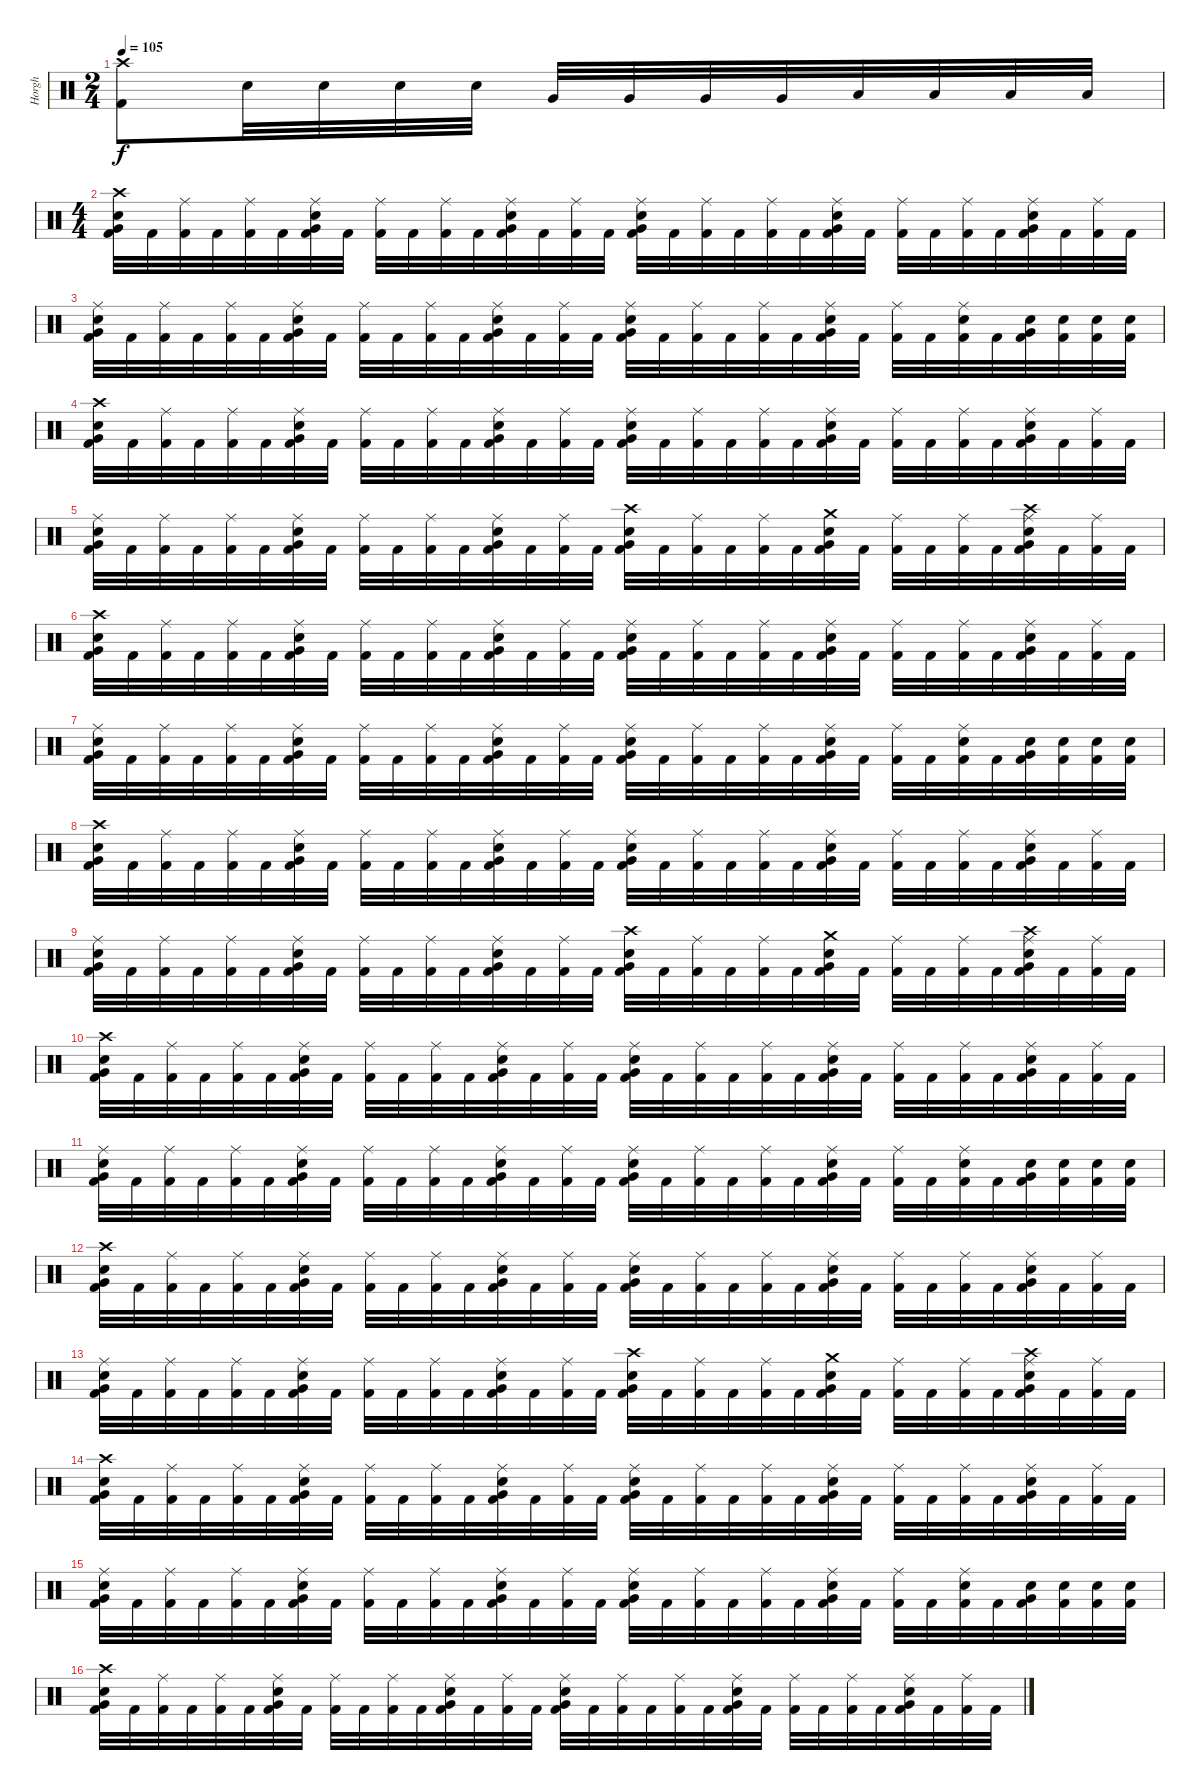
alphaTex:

\track ("Horgh" "Horgh") {instrument percussion}
\staff {score}
\articulation defaults
\ts (2 4)
\tempo 105
\clef neutral
\ks c
("Crash high (hit)" "Kick (hit) 2").8{dy f} "Electric Snare (hit)".32 "Electric Snare (hit)".32 "Electric Snare (hit)".32 "Electric Snare (hit)".32 "Very Low Tom (hit)".32 "Very Low Tom (hit)".32 "Very Low Tom (hit)".32 "Very Low Tom (hit)".32 "Low Tom (hit)".32 "Low Tom (hit)".32 "Low Tom (hit)".32 "Low Tom (hit)".32 |
\ts (4 4)
("Crash high (hit)" "Electric Snare (hit)" "Very Low Tom (hit)" "Kick (hit) 2").32 "Kick (hit) 2".32 ("Ride (middle)" "Kick (hit) 2").32 "Kick (hit) 2".32 ("Ride (middle)" "Kick (hit) 2").32 "Kick (hit) 2".32 ("Ride (middle)" "Electric Snare (hit)" "Very Low Tom (hit)" "Kick (hit) 2").32 "Kick (hit) 2".32 ("Ride (middle)" "Kick (hit) 2").32 "Kick (hit) 2".32 ("Ride (middle)" "Kick (hit) 2").32 "Kick (hit) 2".32 ("Ride (middle)" "Electric Snare (hit)" "Very Low Tom (hit)" "Kick (hit) 2").32 "Kick (hit) 2".32 ("Ride (middle)" "Kick (hit) 2").32 "Kick (hit) 2".32 ("Ride (middle)" "Electric Snare (hit)" "Very Low Tom (hit)" "Kick (hit) 2").32 "Kick (hit) 2".32 ("Ride (middle)" "Kick (hit) 2").32 "Kick (hit) 2".32 ("Ride (middle)" "Kick (hit) 2").32 "Kick (hit) 2".32 ("Ride (middle)" "Electric Snare (hit)" "Very Low Tom (hit)" "Kick (hit) 2").32 "Kick (hit) 2".32 ("Ride (middle)" "Kick (hit) 2").32 "Kick (hit) 2".32 ("Ride (middle)" "Kick (hit) 2").32 "Kick (hit) 2".32 ("Ride (middle)" "Electric Snare (hit)" "Very Low Tom (hit)" "Kick (hit) 2").32 "Kick (hit) 2".32 ("Ride (middle)" "Kick (hit) 2").32 "Kick (hit) 2".32 |
("Ride (middle)" "Electric Snare (hit)" "Very Low Tom (hit)" "Kick (hit) 2").32 "Kick (hit) 2".32 ("Ride (middle)" "Kick (hit) 2").32 "Kick (hit) 2".32 ("Ride (middle)" "Kick (hit) 2").32 "Kick (hit) 2".32 ("Ride (middle)" "Electric Snare (hit)" "Very Low Tom (hit)" "Kick (hit) 2").32 "Kick (hit) 2".32 ("Ride (middle)" "Kick (hit) 2").32 "Kick (hit) 2".32 ("Ride (middle)" "Kick (hit) 2").32 "Kick (hit) 2".32 ("Ride (middle)" "Electric Snare (hit)" "Very Low Tom (hit)" "Kick (hit) 2").32 "Kick (hit) 2".32 ("Ride (middle)" "Kick (hit) 2").32 "Kick (hit) 2".32 ("Ride (middle)" "Electric Snare (hit)" "Very Low Tom (hit)" "Kick (hit) 2").32 "Kick (hit) 2".32 ("Ride (middle)" "Kick (hit) 2").32 "Kick (hit) 2".32 ("Ride (middle)" "Kick (hit) 2").32 "Kick (hit) 2".32 ("Ride (middle)" "Electric Snare (hit)" "Very Low Tom (hit)" "Kick (hit) 2").32 "Kick (hit) 2".32 ("Ride (middle)" "Kick (hit) 2").32 "Kick (hit) 2".32 ("Ride (middle)" "Electric Snare (hit)" "Kick (hit) 2").32 "Kick (hit) 2".32 ("Electric Snare (hit)" "Very Low Tom (hit)" "Kick (hit) 2").32 ("Electric Snare (hit)" "Kick (hit) 2").32 ("Electric Snare (hit)" "Kick (hit) 2").32 ("Electric Snare (hit)" "Kick (hit) 2").32 |
("Crash high (hit)" "Electric Snare (hit)" "Very Low Tom (hit)" "Kick (hit) 2").32 "Kick (hit) 2".32 ("Ride (middle)" "Kick (hit) 2").32 "Kick (hit) 2".32 ("Ride (middle)" "Kick (hit) 2").32 "Kick (hit) 2".32 ("Ride (middle)" "Electric Snare (hit)" "Very Low Tom (hit)" "Kick (hit) 2").32 "Kick (hit) 2".32 ("Ride (middle)" "Kick (hit) 2").32 "Kick (hit) 2".32 ("Ride (middle)" "Kick (hit) 2").32 "Kick (hit) 2".32 ("Ride (middle)" "Electric Snare (hit)" "Very Low Tom (hit)" "Kick (hit) 2").32 "Kick (hit) 2".32 ("Ride (middle)" "Kick (hit) 2").32 "Kick (hit) 2".32 ("Ride (middle)" "Electric Snare (hit)" "Very Low Tom (hit)" "Kick (hit) 2").32 "Kick (hit) 2".32 ("Ride (middle)" "Kick (hit) 2").32 "Kick (hit) 2".32 ("Ride (middle)" "Kick (hit) 2").32 "Kick (hit) 2".32 ("Ride (middle)" "Electric Snare (hit)" "Very Low Tom (hit)" "Kick (hit) 2").32 "Kick (hit) 2".32 ("Ride (middle)" "Kick (hit) 2").32 "Kick (hit) 2".32 ("Ride (middle)" "Kick (hit) 2").32 "Kick (hit) 2".32 ("Ride (middle)" "Electric Snare (hit)" "Very Low Tom (hit)" "Kick (hit) 2").32 "Kick (hit) 2".32 ("Ride (middle)" "Kick (hit) 2").32 "Kick (hit) 2".32 |
("Ride (middle)" "Electric Snare (hit)" "Very Low Tom (hit)" "Kick (hit) 2").32 "Kick (hit) 2".32 ("Ride (middle)" "Kick (hit) 2").32 "Kick (hit) 2".32 ("Ride (middle)" "Kick (hit) 2").32 "Kick (hit) 2".32 ("Ride (middle)" "Electric Snare (hit)" "Very Low Tom (hit)" "Kick (hit) 2").32 "Kick (hit) 2".32 ("Ride (middle)" "Kick (hit) 2").32 "Kick (hit) 2".32 ("Ride (middle)" "Kick (hit) 2").32 "Kick (hit) 2".32 ("Ride (middle)" "Electric Snare (hit)" "Very Low Tom (hit)" "Kick (hit) 2").32 "Kick (hit) 2".32 ("Ride (middle)" "Kick (hit) 2").32 "Kick (hit) 2".32 ("Crash high (hit)" "Electric Snare (hit)" "Very Low Tom (hit)" "Kick (hit) 2").32 "Kick (hit) 2".32 ("Ride (middle)" "Kick (hit) 2").32 "Kick (hit) 2".32 ("Ride (middle)" "Kick (hit) 2").32 "Kick (hit) 2".32 ("Crash medium (hit)" "Electric Snare (hit)" "Very Low Tom (hit)" "Kick (hit) 2").32 "Kick (hit) 2".32 ("Ride (middle)" "Kick (hit) 2").32 "Kick (hit) 2".32 ("Ride (middle)" "Kick (hit) 2").32 "Kick (hit) 2".32 ("Crash high (hit)" "Ride (middle)" "Electric Snare (hit)" "Very Low Tom (hit)" "Kick (hit) 2").32 "Kick (hit) 2".32 ("Ride (middle)" "Kick (hit) 2").32 "Kick (hit) 2".32 |
("Crash high (hit)" "Electric Snare (hit)" "Very Low Tom (hit)" "Kick (hit) 2").32 "Kick (hit) 2".32 ("Ride (middle)" "Kick (hit) 2").32 "Kick (hit) 2".32 ("Ride (middle)" "Kick (hit) 2").32 "Kick (hit) 2".32 ("Ride (middle)" "Electric Snare (hit)" "Very Low Tom (hit)" "Kick (hit) 2").32 "Kick (hit) 2".32 ("Ride (middle)" "Kick (hit) 2").32 "Kick (hit) 2".32 ("Ride (middle)" "Kick (hit) 2").32 "Kick (hit) 2".32 ("Ride (middle)" "Electric Snare (hit)" "Very Low Tom (hit)" "Kick (hit) 2").32 "Kick (hit) 2".32 ("Ride (middle)" "Kick (hit) 2").32 "Kick (hit) 2".32 ("Ride (middle)" "Electric Snare (hit)" "Very Low Tom (hit)" "Kick (hit) 2").32 "Kick (hit) 2".32 ("Ride (middle)" "Kick (hit) 2").32 "Kick (hit) 2".32 ("Ride (middle)" "Kick (hit) 2").32 "Kick (hit) 2".32 ("Ride (middle)" "Electric Snare (hit)" "Very Low Tom (hit)" "Kick (hit) 2").32 "Kick (hit) 2".32 ("Ride (middle)" "Kick (hit) 2").32 "Kick (hit) 2".32 ("Ride (middle)" "Kick (hit) 2").32 "Kick (hit) 2".32 ("Ride (middle)" "Electric Snare (hit)" "Very Low Tom (hit)" "Kick (hit) 2").32 "Kick (hit) 2".32 ("Ride (middle)" "Kick (hit) 2").32 "Kick (hit) 2".32 |
("Ride (middle)" "Electric Snare (hit)" "Very Low Tom (hit)" "Kick (hit) 2").32 "Kick (hit) 2".32 ("Ride (middle)" "Kick (hit) 2").32 "Kick (hit) 2".32 ("Ride (middle)" "Kick (hit) 2").32 "Kick (hit) 2".32 ("Ride (middle)" "Electric Snare (hit)" "Very Low Tom (hit)" "Kick (hit) 2").32 "Kick (hit) 2".32 ("Ride (middle)" "Kick (hit) 2").32 "Kick (hit) 2".32 ("Ride (middle)" "Kick (hit) 2").32 "Kick (hit) 2".32 ("Ride (middle)" "Electric Snare (hit)" "Very Low Tom (hit)" "Kick (hit) 2").32 "Kick (hit) 2".32 ("Ride (middle)" "Kick (hit) 2").32 "Kick (hit) 2".32 ("Ride (middle)" "Electric Snare (hit)" "Very Low Tom (hit)" "Kick (hit) 2").32 "Kick (hit) 2".32 ("Ride (middle)" "Kick (hit) 2").32 "Kick (hit) 2".32 ("Ride (middle)" "Kick (hit) 2").32 "Kick (hit) 2".32 ("Ride (middle)" "Electric Snare (hit)" "Very Low Tom (hit)" "Kick (hit) 2").32 "Kick (hit) 2".32 ("Ride (middle)" "Kick (hit) 2").32 "Kick (hit) 2".32 ("Ride (middle)" "Electric Snare (hit)" "Kick (hit) 2").32 "Kick (hit) 2".32 ("Electric Snare (hit)" "Very Low Tom (hit)" "Kick (hit) 2").32 ("Electric Snare (hit)" "Kick (hit) 2").32 ("Electric Snare (hit)" "Kick (hit) 2").32 ("Electric Snare (hit)" "Kick (hit) 2").32 |
("Crash high (hit)" "Electric Snare (hit)" "Very Low Tom (hit)" "Kick (hit) 2").32 "Kick (hit) 2".32 ("Ride (middle)" "Kick (hit) 2").32 "Kick (hit) 2".32 ("Ride (middle)" "Kick (hit) 2").32 "Kick (hit) 2".32 ("Ride (middle)" "Electric Snare (hit)" "Very Low Tom (hit)" "Kick (hit) 2").32 "Kick (hit) 2".32 ("Ride (middle)" "Kick (hit) 2").32 "Kick (hit) 2".32 ("Ride (middle)" "Kick (hit) 2").32 "Kick (hit) 2".32 ("Ride (middle)" "Electric Snare (hit)" "Very Low Tom (hit)" "Kick (hit) 2").32 "Kick (hit) 2".32 ("Ride (middle)" "Kick (hit) 2").32 "Kick (hit) 2".32 ("Ride (middle)" "Electric Snare (hit)" "Very Low Tom (hit)" "Kick (hit) 2").32 "Kick (hit) 2".32 ("Ride (middle)" "Kick (hit) 2").32 "Kick (hit) 2".32 ("Ride (middle)" "Kick (hit) 2").32 "Kick (hit) 2".32 ("Ride (middle)" "Electric Snare (hit)" "Very Low Tom (hit)" "Kick (hit) 2").32 "Kick (hit) 2".32 ("Ride (middle)" "Kick (hit) 2").32 "Kick (hit) 2".32 ("Ride (middle)" "Kick (hit) 2").32 "Kick (hit) 2".32 ("Ride (middle)" "Electric Snare (hit)" "Very Low Tom (hit)" "Kick (hit) 2").32 "Kick (hit) 2".32 ("Ride (middle)" "Kick (hit) 2").32 "Kick (hit) 2".32 |
("Ride (middle)" "Electric Snare (hit)" "Very Low Tom (hit)" "Kick (hit) 2").32 "Kick (hit) 2".32 ("Ride (middle)" "Kick (hit) 2").32 "Kick (hit) 2".32 ("Ride (middle)" "Kick (hit) 2").32 "Kick (hit) 2".32 ("Ride (middle)" "Electric Snare (hit)" "Very Low Tom (hit)" "Kick (hit) 2").32 "Kick (hit) 2".32 ("Ride (middle)" "Kick (hit) 2").32 "Kick (hit) 2".32 ("Ride (middle)" "Kick (hit) 2").32 "Kick (hit) 2".32 ("Ride (middle)" "Electric Snare (hit)" "Very Low Tom (hit)" "Kick (hit) 2").32 "Kick (hit) 2".32 ("Ride (middle)" "Kick (hit) 2").32 "Kick (hit) 2".32 ("Crash high (hit)" "Electric Snare (hit)" "Very Low Tom (hit)" "Kick (hit) 2").32 "Kick (hit) 2".32 ("Ride (middle)" "Kick (hit) 2").32 "Kick (hit) 2".32 ("Ride (middle)" "Kick (hit) 2").32 "Kick (hit) 2".32 ("Crash medium (hit)" "Electric Snare (hit)" "Very Low Tom (hit)" "Kick (hit) 2").32 "Kick (hit) 2".32 ("Ride (middle)" "Kick (hit) 2").32 "Kick (hit) 2".32 ("Ride (middle)" "Kick (hit) 2").32 "Kick (hit) 2".32 ("Crash high (hit)" "Ride (middle)" "Electric Snare (hit)" "Very Low Tom (hit)" "Kick (hit) 2").32 "Kick (hit) 2".32 ("Ride (middle)" "Kick (hit) 2").32 "Kick (hit) 2".32 |
("Crash high (hit)" "Electric Snare (hit)" "Very Low Tom (hit)" "Kick (hit) 2").32 "Kick (hit) 2".32 ("Ride (middle)" "Kick (hit) 2").32 "Kick (hit) 2".32 ("Ride (middle)" "Kick (hit) 2").32 "Kick (hit) 2".32 ("Ride (middle)" "Electric Snare (hit)" "Very Low Tom (hit)" "Kick (hit) 2").32 "Kick (hit) 2".32 ("Ride (middle)" "Kick (hit) 2").32 "Kick (hit) 2".32 ("Ride (middle)" "Kick (hit) 2").32 "Kick (hit) 2".32 ("Ride (middle)" "Electric Snare (hit)" "Very Low Tom (hit)" "Kick (hit) 2").32 "Kick (hit) 2".32 ("Ride (middle)" "Kick (hit) 2").32 "Kick (hit) 2".32 ("Ride (middle)" "Electric Snare (hit)" "Very Low Tom (hit)" "Kick (hit) 2").32 "Kick (hit) 2".32 ("Ride (middle)" "Kick (hit) 2").32 "Kick (hit) 2".32 ("Ride (middle)" "Kick (hit) 2").32 "Kick (hit) 2".32 ("Ride (middle)" "Electric Snare (hit)" "Very Low Tom (hit)" "Kick (hit) 2").32 "Kick (hit) 2".32 ("Ride (middle)" "Kick (hit) 2").32 "Kick (hit) 2".32 ("Ride (middle)" "Kick (hit) 2").32 "Kick (hit) 2".32 ("Ride (middle)" "Electric Snare (hit)" "Very Low Tom (hit)" "Kick (hit) 2").32 "Kick (hit) 2".32 ("Ride (middle)" "Kick (hit) 2").32 "Kick (hit) 2".32 |
("Ride (middle)" "Electric Snare (hit)" "Very Low Tom (hit)" "Kick (hit) 2").32 "Kick (hit) 2".32 ("Ride (middle)" "Kick (hit) 2").32 "Kick (hit) 2".32 ("Ride (middle)" "Kick (hit) 2").32 "Kick (hit) 2".32 ("Ride (middle)" "Electric Snare (hit)" "Very Low Tom (hit)" "Kick (hit) 2").32 "Kick (hit) 2".32 ("Ride (middle)" "Kick (hit) 2").32 "Kick (hit) 2".32 ("Ride (middle)" "Kick (hit) 2").32 "Kick (hit) 2".32 ("Ride (middle)" "Electric Snare (hit)" "Very Low Tom (hit)" "Kick (hit) 2").32 "Kick (hit) 2".32 ("Ride (middle)" "Kick (hit) 2").32 "Kick (hit) 2".32 ("Ride (middle)" "Electric Snare (hit)" "Very Low Tom (hit)" "Kick (hit) 2").32 "Kick (hit) 2".32 ("Ride (middle)" "Kick (hit) 2").32 "Kick (hit) 2".32 ("Ride (middle)" "Kick (hit) 2").32 "Kick (hit) 2".32 ("Ride (middle)" "Electric Snare (hit)" "Very Low Tom (hit)" "Kick (hit) 2").32 "Kick (hit) 2".32 ("Ride (middle)" "Kick (hit) 2").32 "Kick (hit) 2".32 ("Ride (middle)" "Electric Snare (hit)" "Kick (hit) 2").32 "Kick (hit) 2".32 ("Electric Snare (hit)" "Very Low Tom (hit)" "Kick (hit) 2").32 ("Electric Snare (hit)" "Kick (hit) 2").32 ("Electric Snare (hit)" "Kick (hit) 2").32 ("Electric Snare (hit)" "Kick (hit) 2").32 |
("Crash high (hit)" "Electric Snare (hit)" "Very Low Tom (hit)" "Kick (hit) 2").32 "Kick (hit) 2".32 ("Ride (middle)" "Kick (hit) 2").32 "Kick (hit) 2".32 ("Ride (middle)" "Kick (hit) 2").32 "Kick (hit) 2".32 ("Ride (middle)" "Electric Snare (hit)" "Very Low Tom (hit)" "Kick (hit) 2").32 "Kick (hit) 2".32 ("Ride (middle)" "Kick (hit) 2").32 "Kick (hit) 2".32 ("Ride (middle)" "Kick (hit) 2").32 "Kick (hit) 2".32 ("Ride (middle)" "Electric Snare (hit)" "Very Low Tom (hit)" "Kick (hit) 2").32 "Kick (hit) 2".32 ("Ride (middle)" "Kick (hit) 2").32 "Kick (hit) 2".32 ("Ride (middle)" "Electric Snare (hit)" "Very Low Tom (hit)" "Kick (hit) 2").32 "Kick (hit) 2".32 ("Ride (middle)" "Kick (hit) 2").32 "Kick (hit) 2".32 ("Ride (middle)" "Kick (hit) 2").32 "Kick (hit) 2".32 ("Ride (middle)" "Electric Snare (hit)" "Very Low Tom (hit)" "Kick (hit) 2").32 "Kick (hit) 2".32 ("Ride (middle)" "Kick (hit) 2").32 "Kick (hit) 2".32 ("Ride (middle)" "Kick (hit) 2").32 "Kick (hit) 2".32 ("Ride (middle)" "Electric Snare (hit)" "Very Low Tom (hit)" "Kick (hit) 2").32 "Kick (hit) 2".32 ("Ride (middle)" "Kick (hit) 2").32 "Kick (hit) 2".32 |
("Ride (middle)" "Electric Snare (hit)" "Very Low Tom (hit)" "Kick (hit) 2").32 "Kick (hit) 2".32 ("Ride (middle)" "Kick (hit) 2").32 "Kick (hit) 2".32 ("Ride (middle)" "Kick (hit) 2").32 "Kick (hit) 2".32 ("Ride (middle)" "Electric Snare (hit)" "Very Low Tom (hit)" "Kick (hit) 2").32 "Kick (hit) 2".32 ("Ride (middle)" "Kick (hit) 2").32 "Kick (hit) 2".32 ("Ride (middle)" "Kick (hit) 2").32 "Kick (hit) 2".32 ("Ride (middle)" "Electric Snare (hit)" "Very Low Tom (hit)" "Kick (hit) 2").32 "Kick (hit) 2".32 ("Ride (middle)" "Kick (hit) 2").32 "Kick (hit) 2".32 ("Crash high (hit)" "Electric Snare (hit)" "Very Low Tom (hit)" "Kick (hit) 2").32 "Kick (hit) 2".32 ("Ride (middle)" "Kick (hit) 2").32 "Kick (hit) 2".32 ("Ride (middle)" "Kick (hit) 2").32 "Kick (hit) 2".32 ("Crash medium (hit)" "Electric Snare (hit)" "Very Low Tom (hit)" "Kick (hit) 2").32 "Kick (hit) 2".32 ("Ride (middle)" "Kick (hit) 2").32 "Kick (hit) 2".32 ("Ride (middle)" "Kick (hit) 2").32 "Kick (hit) 2".32 ("Crash high (hit)" "Ride (middle)" "Electric Snare (hit)" "Very Low Tom (hit)" "Kick (hit) 2").32 "Kick (hit) 2".32 ("Ride (middle)" "Kick (hit) 2").32 "Kick (hit) 2".32 |
("Crash high (hit)" "Electric Snare (hit)" "Very Low Tom (hit)" "Kick (hit) 2").32 "Kick (hit) 2".32 ("Ride (middle)" "Kick (hit) 2").32 "Kick (hit) 2".32 ("Ride (middle)" "Kick (hit) 2").32 "Kick (hit) 2".32 ("Ride (middle)" "Electric Snare (hit)" "Very Low Tom (hit)" "Kick (hit) 2").32 "Kick (hit) 2".32 ("Ride (middle)" "Kick (hit) 2").32 "Kick (hit) 2".32 ("Ride (middle)" "Kick (hit) 2").32 "Kick (hit) 2".32 ("Ride (middle)" "Electric Snare (hit)" "Very Low Tom (hit)" "Kick (hit) 2").32 "Kick (hit) 2".32 ("Ride (middle)" "Kick (hit) 2").32 "Kick (hit) 2".32 ("Ride (middle)" "Electric Snare (hit)" "Very Low Tom (hit)" "Kick (hit) 2").32 "Kick (hit) 2".32 ("Ride (middle)" "Kick (hit) 2").32 "Kick (hit) 2".32 ("Ride (middle)" "Kick (hit) 2").32 "Kick (hit) 2".32 ("Ride (middle)" "Electric Snare (hit)" "Very Low Tom (hit)" "Kick (hit) 2").32 "Kick (hit) 2".32 ("Ride (middle)" "Kick (hit) 2").32 "Kick (hit) 2".32 ("Ride (middle)" "Kick (hit) 2").32 "Kick (hit) 2".32 ("Ride (middle)" "Electric Snare (hit)" "Very Low Tom (hit)" "Kick (hit) 2").32 "Kick (hit) 2".32 ("Ride (middle)" "Kick (hit) 2").32 "Kick (hit) 2".32 |
("Ride (middle)" "Electric Snare (hit)" "Very Low Tom (hit)" "Kick (hit) 2").32 "Kick (hit) 2".32 ("Ride (middle)" "Kick (hit) 2").32 "Kick (hit) 2".32 ("Ride (middle)" "Kick (hit) 2").32 "Kick (hit) 2".32 ("Ride (middle)" "Electric Snare (hit)" "Very Low Tom (hit)" "Kick (hit) 2").32 "Kick (hit) 2".32 ("Ride (middle)" "Kick (hit) 2").32 "Kick (hit) 2".32 ("Ride (middle)" "Kick (hit) 2").32 "Kick (hit) 2".32 ("Ride (middle)" "Electric Snare (hit)" "Very Low Tom (hit)" "Kick (hit) 2").32 "Kick (hit) 2".32 ("Ride (middle)" "Kick (hit) 2").32 "Kick (hit) 2".32 ("Ride (middle)" "Electric Snare (hit)" "Very Low Tom (hit)" "Kick (hit) 2").32 "Kick (hit) 2".32 ("Ride (middle)" "Kick (hit) 2").32 "Kick (hit) 2".32 ("Ride (middle)" "Kick (hit) 2").32 "Kick (hit) 2".32 ("Ride (middle)" "Electric Snare (hit)" "Very Low Tom (hit)" "Kick (hit) 2").32 "Kick (hit) 2".32 ("Ride (middle)" "Kick (hit) 2").32 "Kick (hit) 2".32 ("Ride (middle)" "Electric Snare (hit)" "Kick (hit) 2").32 "Kick (hit) 2".32 ("Electric Snare (hit)" "Very Low Tom (hit)" "Kick (hit) 2").32 ("Electric Snare (hit)" "Kick (hit) 2").32 ("Electric Snare (hit)" "Kick (hit) 2").32 ("Electric Snare (hit)" "Kick (hit) 2").32 |
("Crash high (hit)" "Electric Snare (hit)" "Very Low Tom (hit)" "Kick (hit) 2").32 "Kick (hit) 2".32 ("Ride (middle)" "Kick (hit) 2").32 "Kick (hit) 2".32 ("Ride (middle)" "Kick (hit) 2").32 "Kick (hit) 2".32 ("Ride (middle)" "Electric Snare (hit)" "Very Low Tom (hit)" "Kick (hit) 2").32 "Kick (hit) 2".32 ("Ride (middle)" "Kick (hit) 2").32 "Kick (hit) 2".32 ("Ride (middle)" "Kick (hit) 2").32 "Kick (hit) 2".32 ("Ride (middle)" "Electric Snare (hit)" "Very Low Tom (hit)" "Kick (hit) 2").32 "Kick (hit) 2".32 ("Ride (middle)" "Kick (hit) 2").32 "Kick (hit) 2".32 ("Ride (middle)" "Electric Snare (hit)" "Very Low Tom (hit)" "Kick (hit) 2").32 "Kick (hit) 2".32 ("Ride (middle)" "Kick (hit) 2").32 "Kick (hit) 2".32 ("Ride (middle)" "Kick (hit) 2").32 "Kick (hit) 2".32 ("Ride (middle)" "Electric Snare (hit)" "Very Low Tom (hit)" "Kick (hit) 2").32 "Kick (hit) 2".32 ("Ride (middle)" "Kick (hit) 2").32 "Kick (hit) 2".32 ("Ride (middle)" "Kick (hit) 2").32 "Kick (hit) 2".32 ("Ride (middle)" "Electric Snare (hit)" "Very Low Tom (hit)" "Kick (hit) 2").32 "Kick (hit) 2".32 ("Ride (middle)" "Kick (hit) 2").32 "Kick (hit) 2".32
